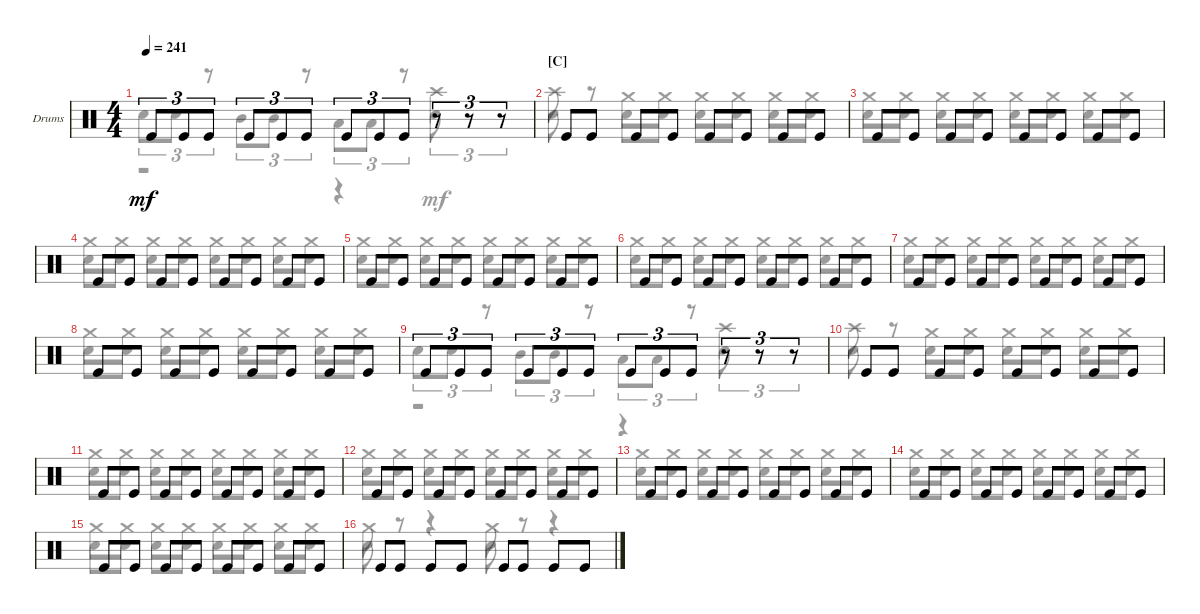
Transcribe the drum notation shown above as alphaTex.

\defaultSystemsLayout 4
\bracketExtendMode groupsimilarinstruments
\firstSystemTrackNameOrientation horizontal
\otherSystemsTrackNameOrientation horizontal
\track ("Drumkit" "Drums") {instrument percussion}
\staff {score}
\articulation defaults
\voice
\ts (4 4)
\tempo 241
\clef neutral
\ks c "Kick (hit)".8{tu (3 2) dy mf} "Kick (hit)".8{tu (3 2)} "Kick (hit)".8{tu (3 2)} "Kick (hit)".8{tu (3 2)} "Kick (hit)".8{tu (3 2)} "Kick (hit)".8{tu (3 2)} "Kick (hit)".8{tu (3 2)} "Kick (hit)".8{tu (3 2)} "Kick (hit)".8{tu (3 2)}
r.8{tu (3 2)} r.8{tu (3 2)} r.8{tu (3 2)} |
\section ("C" "")
"Kick (hit)".8 "Kick (hit)".8 "Kick (hit)".8 "Kick (hit)".8 "Kick (hit)".8 "Kick (hit)".8 "Kick (hit)".8 "Kick (hit)".8 |
"Kick (hit)".8 "Kick (hit)".8 "Kick (hit)".8 "Kick (hit)".8 "Kick (hit)".8 "Kick (hit)".8 "Kick (hit)".8 "Kick (hit)".8 |
"Kick (hit)".8 "Kick (hit)".8 "Kick (hit)".8 "Kick (hit)".8 "Kick (hit)".8 "Kick (hit)".8 "Kick (hit)".8 "Kick (hit)".8 |
"Kick (hit)".8 "Kick (hit)".8 "Kick (hit)".8 "Kick (hit)".8 "Kick (hit)".8 "Kick (hit)".8 "Kick (hit)".8 "Kick (hit)".8 |
"Kick (hit)".8 "Kick (hit)".8 "Kick (hit)".8 "Kick (hit)".8 "Kick (hit)".8 "Kick (hit)".8 "Kick (hit)".8 "Kick (hit)".8 |
"Kick (hit)".8 "Kick (hit)".8 "Kick (hit)".8 "Kick (hit)".8 "Kick (hit)".8 "Kick (hit)".8 "Kick (hit)".8 "Kick (hit)".8 |
"Kick (hit)".8 "Kick (hit)".8 "Kick (hit)".8 "Kick (hit)".8 "Kick (hit)".8 "Kick (hit)".8 "Kick (hit)".8 "Kick (hit)".8 |
"Kick (hit)".8{tu (3 2)} "Kick (hit)".8{tu (3 2)} "Kick (hit)".8{tu (3 2)} "Kick (hit)".8{tu (3 2)} "Kick (hit)".8{tu (3 2)} "Kick (hit)".8{tu (3 2)} "Kick (hit)".8{tu (3 2)} "Kick (hit)".8{tu (3 2)} "Kick (hit)".8{tu (3 2)} r.8{tu (3 2)} r.8{tu (3 2)} r.8{tu (3 2)} |
"Kick (hit)".8 "Kick (hit)".8 "Kick (hit)".8 "Kick (hit)".8 "Kick (hit)".8 "Kick (hit)".8 "Kick (hit)".8 "Kick (hit)".8 |
"Kick (hit)".8 "Kick (hit)".8 "Kick (hit)".8 "Kick (hit)".8 "Kick (hit)".8 "Kick (hit)".8 "Kick (hit)".8 "Kick (hit)".8 |
"Kick (hit)".8 "Kick (hit)".8 "Kick (hit)".8 "Kick (hit)".8 "Kick (hit)".8 "Kick (hit)".8 "Kick (hit)".8 "Kick (hit)".8 |
"Kick (hit)".8 "Kick (hit)".8 "Kick (hit)".8 "Kick (hit)".8 "Kick (hit)".8 "Kick (hit)".8 "Kick (hit)".8 "Kick (hit)".8 |
"Kick (hit)".8 "Kick (hit)".8 "Kick (hit)".8 "Kick (hit)".8 "Kick (hit)".8 "Kick (hit)".8 "Kick (hit)".8 "Kick (hit)".8 |
"Kick (hit)".8 "Kick (hit)".8 "Kick (hit)".8 "Kick (hit)".8 "Kick (hit)".8 "Kick (hit)".8 "Kick (hit)".8 "Kick (hit)".8 |
"Kick (hit)".8 "Kick (hit)".8 "Kick (hit)".8 "Kick (hit)".8 "Kick (hit)".8 "Kick (hit)".8 "Kick (hit)".8 "Kick (hit)".8
\voice
\clef neutral
\ottava regular
\simile none
\ks c "Snare (hit) 2".8{tu (3 2) dy mf} "Snare (hit) 2".8{tu (3 2)}
r.8{tu (3 2)} "Mid Tom (hit)".8{tu (3 2)} "Mid Tom (hit)".8{tu (3 2)} r.8{tu (3 2)} "Low Tom (hit)".8{tu (3 2)} "Low Tom (hit)".8{tu (3 2)} r.8{tu (3 2)} "Snare (hit) 2".8{tu (3 2)} r.8{tu (3 2)} r.8{tu (3 2)} |
"Snare (hit) 2".8 r.8 "Snare (hit) 2".8 "Snare (hit) 2".8 "Snare (hit) 2".8 "Snare (hit) 2".8 "Snare (hit) 2".8 "Snare (hit) 2".8 |
"Snare (hit) 2".8 "Snare (hit) 2".8 "Snare (hit) 2".8 "Snare (hit) 2".8 "Snare (hit) 2".8 "Snare (hit) 2".8 "Snare (hit) 2".8 "Snare (hit) 2".8 |
"Snare (hit) 2".8 "Snare (hit) 2".8 "Snare (hit) 2".8 "Snare (hit) 2".8 "Snare (hit) 2".8 "Snare (hit) 2".8 "Snare (hit) 2".8 "Snare (hit) 2".8 |
"Snare (hit) 2".8 "Snare (hit) 2".8 "Snare (hit) 2".8 "Snare (hit) 2".8 "Snare (hit) 2".8 "Snare (hit) 2".8 "Snare (hit) 2".8 "Snare (hit) 2".8 |
"Snare (hit) 2".8 "Snare (hit) 2".8 "Snare (hit) 2".8 "Snare (hit) 2".8 "Snare (hit) 2".8 "Snare (hit) 2".8 "Snare (hit) 2".8 "Snare (hit) 2".8 |
"Snare (hit) 2".8 "Snare (hit) 2".8 "Snare (hit) 2".8 "Snare (hit) 2".8 "Snare (hit) 2".8 "Snare (hit) 2".8 "Snare (hit) 2".8 "Snare (hit) 2".8 |
"Snare (hit) 2".8 "Snare (hit) 2".8 "Snare (hit) 2".8 "Snare (hit) 2".8 "Snare (hit) 2".8 "Snare (hit) 2".8 "Snare (hit) 2".8 "Snare (hit) 2".8 |
"Snare (hit) 2".8{tu (3 2)} "Snare (hit) 2".8{tu (3 2)} r.8{tu (3 2)} "Mid Tom (hit)".8{tu (3 2)} "Mid Tom (hit)".8{tu (3 2)} r.8{tu (3 2)} "Low Tom (hit)".8{tu (3 2)} "Low Tom (hit)".8{tu (3 2)} r.8{tu (3 2)} "Snare (hit) 2".8{tu (3 2)} r.8{tu (3 2)} r.8{tu (3 2)} |
"Snare (hit) 2".8 r.8 "Snare (hit) 2".8 "Snare (hit) 2".8 "Snare (hit) 2".8 "Snare (hit) 2".8 "Snare (hit) 2".8 "Snare (hit) 2".8 |
"Snare (hit) 2".8 "Snare (hit) 2".8 "Snare (hit) 2".8 "Snare (hit) 2".8 "Snare (hit) 2".8 "Snare (hit) 2".8 "Snare (hit) 2".8 "Snare (hit) 2".8 |
"Snare (hit) 2".8 "Snare (hit) 2".8 "Snare (hit) 2".8 "Snare (hit) 2".8 "Snare (hit) 2".8 "Snare (hit) 2".8 "Snare (hit) 2".8 "Snare (hit) 2".8 |
"Snare (hit) 2".8 "Snare (hit) 2".8 "Snare (hit) 2".8 "Snare (hit) 2".8 "Snare (hit) 2".8 "Snare (hit) 2".8 "Snare (hit) 2".8 "Snare (hit) 2".8 |
"Snare (hit) 2".8 "Snare (hit) 2".8 "Snare (hit) 2".8 "Snare (hit) 2".8 "Snare (hit) 2".8 "Snare (hit) 2".8 "Snare (hit) 2".8 "Snare (hit) 2".8 |
"Snare (hit) 2".8 "Snare (hit) 2".8 "Snare (hit) 2".8 "Snare (hit) 2".8 "Snare (hit) 2".8 "Snare (hit) 2".8 "Snare (hit) 2".8 "Snare (hit) 2".8 |
"Snare (hit) 2".8 r.8 r.4 "Snare (hit) 2".8 r.8 r.4
\voice
\clef neutral
\ottava regular
\simile none
\ks c
r.2{dy mf} r.4 "Crash high (hit)".4 |
"Crash high (hit)".8 r.8 "Crash medium (hit)".8 "Crash medium (hit)".8 "Crash medium (hit)".8 "Crash medium (hit)".8 "Crash medium (hit)".8 "Crash medium (hit)".8 |
"Crash medium (hit)".8 "Crash medium (hit)".8 "Crash medium (hit)".8 "Crash medium (hit)".8 "Crash medium (hit)".8 "Crash medium (hit)".8 "Crash medium (hit)".8 "Crash medium (hit)".8 |
"Crash medium (hit)".8 "Crash medium (hit)".8 "Crash medium (hit)".8 "Crash medium (hit)".8 "Crash medium (hit)".8 "Crash medium (hit)".8 "Crash medium (hit)".8 "Crash medium (hit)".8 |
"Crash medium (hit)".8 "Crash medium (hit)".8 "Crash medium (hit)".8 "Crash medium (hit)".8 "Crash medium (hit)".8 "Crash medium (hit)".8 "Crash medium (hit)".8 "Crash medium (hit)".8 |
"Crash medium (hit)".8 "Crash medium (hit)".8 "Crash medium (hit)".8 "Crash medium (hit)".8 "Crash medium (hit)".8 "Crash medium (hit)".8 "Crash medium (hit)".8 "Crash medium (hit)".8 |
"Crash medium (hit)".8 "Crash medium (hit)".8 "Crash medium (hit)".8 "Crash medium (hit)".8 "Crash medium (hit)".8 "Crash medium (hit)".8 "Crash medium (hit)".8 "Crash medium (hit)".8 |
"Crash medium (hit)".8 "Crash medium (hit)".8 "Crash medium (hit)".8 "Crash medium (hit)".8 "Crash medium (hit)".8 "Crash medium (hit)".8 "Crash medium (hit)".8 "Crash medium (hit)".8 |
r.2 r.4 "Crash high (hit)".4 |
"Crash high (hit)".8 r.8 "Crash medium (hit)".8 "Crash medium (hit)".8 "Crash medium (hit)".8 "Crash medium (hit)".8 "Crash medium (hit)".8 "Crash medium (hit)".8 |
"Crash medium (hit)".8 "Crash medium (hit)".8 "Crash medium (hit)".8 "Crash medium (hit)".8 "Crash medium (hit)".8 "Crash medium (hit)".8 "Crash medium (hit)".8 "Crash medium (hit)".8 |
"Crash medium (hit)".8 "Crash medium (hit)".8 "Crash medium (hit)".8 "Crash medium (hit)".8 "Crash medium (hit)".8 "Crash medium (hit)".8 "Crash medium (hit)".8 "Crash medium (hit)".8 |
"Crash medium (hit)".8 "Crash medium (hit)".8 "Crash medium (hit)".8 "Crash medium (hit)".8 "Crash medium (hit)".8 "Crash medium (hit)".8 "Crash medium (hit)".8 "Crash medium (hit)".8 |
"Crash medium (hit)".8 "Crash medium (hit)".8 "Crash medium (hit)".8 "Crash medium (hit)".8 "Crash medium (hit)".8 "Crash medium (hit)".8 "Crash medium (hit)".8 "Crash medium (hit)".8 |
"Crash medium (hit)".8 "Crash medium (hit)".8 "Crash medium (hit)".8 "Crash medium (hit)".8 "Crash medium (hit)".8 "Crash medium (hit)".8 "Crash medium (hit)".8 "Crash medium (hit)".8 |
"Crash medium (hit)".8 r.8 r.4 "Crash medium (hit)".8 r.8 r.4
